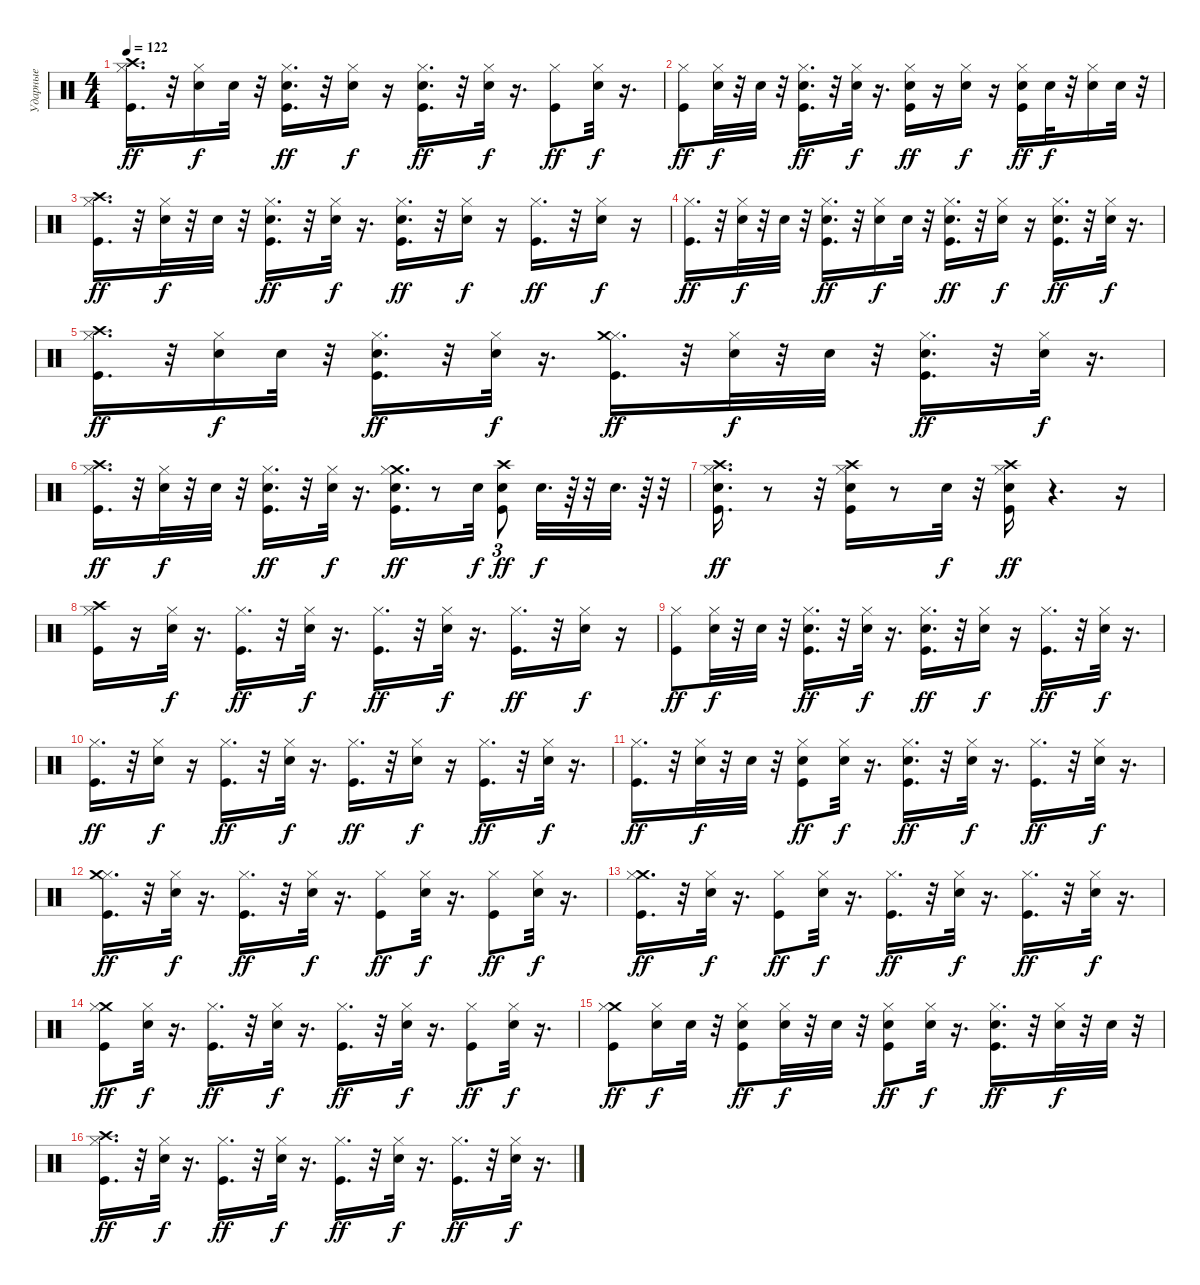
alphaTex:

\track ("Ударные" "Ударные") {instrument percussion}
\staff {score}
\articulation defaults
\ts (4 4)
\tempo 122
\clef neutral
\ks c
("Crash high (hit)" "Hi-Hat (closed)" "Kick (hit)").16{d dy ff} r.32 ("Electric Snare (hit)" "Hi-Hat (closed)").16{dy f} "Electric Snare (hit)".32 r.32 ("Electric Snare (hit)" "Hi-Hat (closed)" "Kick (hit)").16{d dy ff} r.32 ("Hi-Hat (closed)" "Electric Snare (hit)").16{dy f} r.16 ("Hi-Hat (closed)" "Kick (hit)" "Electric Snare (hit)").16{d dy ff} r.32 ("Hi-Hat (closed)" "Electric Snare (hit)").32{dy f} r.16{d} ("Hi-Hat (closed)" "Kick (hit)").8{dy ff} ("Hi-Hat (closed)" "Electric Snare (hit)").32{dy f} r.16{d} |
("Hi-Hat (closed)" "Kick (hit)").8{dy ff} ("Hi-Hat (closed)" "Electric Snare (hit)").32{dy f} r.32 "Electric Snare (hit)".32 r.32 ("Hi-Hat (closed)" "Kick (hit)" "Electric Snare (hit)").16{d dy ff} r.32 ("Hi-Hat (closed)" "Electric Snare (hit)").32{dy f} r.16{d} ("Hi-Hat (closed)" "Kick (hit)" "Electric Snare (hit)").16{dy ff} r.16 ("Hi-Hat (closed)" "Electric Snare (hit)").16{dy f} r.16 ("Electric Snare (hit)" "Hi-Hat (closed)" "Kick (hit)").16{dy ff} "Electric Snare (hit)".32{dy f} r.32 ("Electric Snare (hit)" "Hi-Hat (closed)").16 "Electric Snare (hit)".32 r.32 |
("Crash high (hit)" "Hi-Hat (closed)" "Kick (hit)").16{d dy ff} r.32 ("Hi-Hat (closed)" "Electric Snare (hit)").32{dy f} r.32 "Electric Snare (hit)".32 r.32 ("Electric Snare (hit)" "Hi-Hat (closed)" "Kick (hit)").16{d dy ff} r.32 ("Hi-Hat (closed)" "Electric Snare (hit)").32{dy f} r.16{d} ("Hi-Hat (closed)" "Kick (hit)" "Electric Snare (hit)").16{d dy ff} r.32 ("Hi-Hat (closed)" "Electric Snare (hit)").16{dy f} r.16 ("Hi-Hat (closed)" "Kick (hit)").16{d dy ff} r.32 ("Hi-Hat (closed)" "Electric Snare (hit)").16{dy f} r.16 |
("Hi-Hat (closed)" "Kick (hit)").16{d dy ff} r.32 ("Electric Snare (hit)" "Hi-Hat (closed)").32{dy f} r.32 "Electric Snare (hit)".32 r.32 ("Kick (hit)" "Hi-Hat (closed)" "Electric Snare (hit)").16{d dy ff} r.32 ("Hi-Hat (closed)" "Electric Snare (hit)").16{dy f} "Electric Snare (hit)".32 r.32 ("Electric Snare (hit)" "Hi-Hat (closed)" "Kick (hit)").16{d dy ff} r.32 ("Hi-Hat (closed)" "Electric Snare (hit)").16{dy f} r.16 ("Hi-Hat (closed)" "Kick (hit)" "Electric Snare (hit)").16{d dy ff} r.32 ("Hi-Hat (closed)" "Electric Snare (hit)").32{dy f} r.16{d} |
("Hi-Hat (closed)" "Kick (hit)" "Crash high (hit)").16{d dy ff} r.32 ("Electric Snare (hit)" "Hi-Hat (closed)").16{dy f} "Electric Snare (hit)".32 r.32 ("Electric Snare (hit)" "Kick (hit)" "Hi-Hat (closed)").16{d dy ff} r.32 ("Hi-Hat (closed)" "Electric Snare (hit)").32{dy f} r.16{d} ("Kick (hit)" "Hi-Hat (closed)" "Crash medium (hit)").16{d dy ff} r.32 ("Hi-Hat (closed)" "Electric Snare (hit)").32{dy f} r.32 "Electric Snare (hit)".32 r.32 ("Electric Snare (hit)" "Hi-Hat (closed)" "Kick (hit)").16{d dy ff} r.32 ("Hi-Hat (closed)" "Electric Snare (hit)").32{dy f} r.16{d} |
("Crash high (hit)" "Kick (hit)" "Hi-Hat (closed)").16{d dy ff} r.32 ("Electric Snare (hit)" "Hi-Hat (closed)").32{dy f} r.32 "Electric Snare (hit)".32 r.32 ("Electric Snare (hit)" "Kick (hit)" "Hi-Hat (closed)").16{d dy ff} r.32 ("Hi-Hat (closed)" "Electric Snare (hit)").32{dy f} r.16{d} ("Crash medium (hit)" "Kick (hit)" "Hi-Hat (closed)" "Electric Snare (hit)").16{d dy ff} r.8 "Electric Snare (hit)".32{dy f} ("Crash high (hit)" "Kick (hit)" "Electric Snare (hit)").8{tu (3 2) dy ff} "Electric Snare (hit)".32{d dy f} r.64 r.32 "Electric Snare (hit)".32{d} r.64 r.32 |
("Kick (hit)" "Hi-Hat (closed)" "Crash high (hit)" "Electric Snare (hit)").16{d dy ff} r.8 r.32 ("Electric Snare (hit)" "Crash high (hit)" "Hi-Hat (closed)" "Kick (hit)").16 r.8 "Electric Snare (hit)".32{dy f} r.32 ("Electric Snare (hit)" "Crash high (hit)" "Hi-Hat (closed)" "Kick (hit)").16{dy ff} r.4{d} r.16 |
("Kick (hit)" "Hi-Hat (closed)" "Crash high (hit)").16 r.16 ("Hi-Hat (closed)" "Electric Snare (hit)").32{dy f} r.16{d} ("Kick (hit)" "Hi-Hat (closed)").16{d dy ff} r.32 ("Electric Snare (hit)" "Hi-Hat (closed)").32{dy f} r.16{d} ("Kick (hit)" "Hi-Hat (closed)").16{d dy ff} r.32 ("Electric Snare (hit)" "Hi-Hat (closed)").32{dy f} r.16{d} ("Hi-Hat (closed)" "Kick (hit)").16{d dy ff} r.32 ("Electric Snare (hit)" "Hi-Hat (closed)").16{dy f} r.16 |
("Hi-Hat (closed)" "Kick (hit)").8{dy ff} ("Hi-Hat (closed)" "Electric Snare (hit)").32{dy f} r.32 "Electric Snare (hit)".32 r.32 ("Electric Snare (hit)" "Hi-Hat (closed)" "Kick (hit)").16{d dy ff} r.32 ("Hi-Hat (closed)" "Electric Snare (hit)").32{dy f} r.16{d} ("Electric Snare (hit)" "Hi-Hat (closed)" "Kick (hit)").16{d dy ff} r.32 ("Electric Snare (hit)" "Hi-Hat (closed)").16{dy f} r.16 ("Kick (hit)" "Hi-Hat (closed)").16{d dy ff} r.32 ("Electric Snare (hit)" "Hi-Hat (closed)").32{dy f} r.16{d} |
("Kick (hit)" "Hi-Hat (closed)").16{d dy ff} r.32 ("Electric Snare (hit)" "Hi-Hat (closed)").16{dy f} r.16 ("Kick (hit)" "Hi-Hat (closed)").16{d dy ff} r.32 ("Electric Snare (hit)" "Hi-Hat (closed)").32{dy f} r.16{d} ("Kick (hit)" "Hi-Hat (closed)").16{d dy ff} r.32 ("Electric Snare (hit)" "Hi-Hat (closed)").16{dy f} r.16 ("Kick (hit)" "Hi-Hat (closed)").16{d dy ff} r.32 ("Electric Snare (hit)" "Hi-Hat (closed)").32{dy f} r.16{d} |
("Hi-Hat (closed)" "Kick (hit)").16{d dy ff} r.32 ("Electric Snare (hit)" "Hi-Hat (closed)").32{dy f} r.32 "Electric Snare (hit)".32 r.32 ("Electric Snare (hit)" "Hi-Hat (closed)" "Kick (hit)").8{dy ff} ("Electric Snare (hit)" "Hi-Hat (closed)").32{dy f} r.16{d} ("Electric Snare (hit)" "Hi-Hat (closed)" "Kick (hit)").16{d dy ff} r.32 ("Electric Snare (hit)" "Hi-Hat (closed)").32{dy f} r.16{d} ("Hi-Hat (closed)" "Kick (hit)").16{d dy ff} r.32 ("Hi-Hat (closed)" "Electric Snare (hit)").32{dy f} r.16{d} |
("Hi-Hat (closed)" "Kick (hit)" "Crash medium (hit)").16{d dy ff} r.32 ("Hi-Hat (closed)" "Electric Snare (hit)").32{dy f} r.16{d} ("Hi-Hat (closed)" "Kick (hit)").16{d dy ff} r.32 ("Hi-Hat (closed)" "Electric Snare (hit)").32{dy f} r.16{d} ("Hi-Hat (closed)" "Kick (hit)").8{dy ff} ("Hi-Hat (closed)" "Electric Snare (hit)").32{dy f} r.16{d} ("Hi-Hat (closed)" "Kick (hit)").8{dy ff} ("Hi-Hat (closed)" "Electric Snare (hit)").32{dy f} r.16{d} |
("Crash medium (hit)" "Hi-Hat (closed)" "Kick (hit)").16{d dy ff} r.32 ("Hi-Hat (closed)" "Electric Snare (hit)").32{dy f} r.16{d} ("Hi-Hat (closed)" "Kick (hit)").8{dy ff} ("Electric Snare (hit)" "Hi-Hat (closed)").32{dy f} r.16{d} ("Hi-Hat (closed)" "Kick (hit)").16{d dy ff} r.32 ("Hi-Hat (closed)" "Electric Snare (hit)").32{dy f} r.16{d} ("Hi-Hat (closed)" "Kick (hit)").16{d dy ff} r.32 ("Hi-Hat (closed)" "Electric Snare (hit)").32{dy f} r.16{d} |
("Crash medium (hit)" "Hi-Hat (closed)" "Kick (hit)").8{dy ff} ("Hi-Hat (closed)" "Electric Snare (hit)").32{dy f} r.16{d} ("Hi-Hat (closed)" "Kick (hit)").16{d dy ff} r.32 ("Electric Snare (hit)" "Hi-Hat (closed)").32{dy f} r.16{d} ("Hi-Hat (closed)" "Kick (hit)").16{d dy ff} r.32 ("Electric Snare (hit)" "Hi-Hat (closed)").32{dy f} r.16{d} ("Hi-Hat (closed)" "Kick (hit)").8{dy ff} ("Hi-Hat (closed)" "Electric Snare (hit)").32{dy f} r.16{d} |
("Crash medium (hit)" "Hi-Hat (closed)" "Kick (hit)").8{dy ff} ("Hi-Hat (closed)" "Electric Snare (hit)").16{dy f} "Electric Snare (hit)".32 r.32 ("Hi-Hat (closed)" "Kick (hit)" "Electric Snare (hit)").8{dy ff} ("Electric Snare (hit)" "Hi-Hat (closed)").32{dy f} r.32 "Electric Snare (hit)".32 r.32 ("Electric Snare (hit)" "Hi-Hat (closed)" "Kick (hit)").8{dy ff} ("Electric Snare (hit)" "Hi-Hat (closed)").32{dy f} r.16{d} ("Electric Snare (hit)" "Kick (hit)" "Hi-Hat (closed)").16{d dy ff} r.32 ("Electric Snare (hit)" "Hi-Hat (closed)").32{dy f} r.32 "Electric Snare (hit)".32 r.32 |
("Crash high (hit)" "Kick (hit)" "Hi-Hat (closed)").16{d dy ff} r.32 ("Electric Snare (hit)" "Hi-Hat (closed)").32{dy f} r.16{d} ("Hi-Hat (closed)" "Kick (hit)").16{d dy ff} r.32 ("Hi-Hat (closed)" "Electric Snare (hit)").32{dy f} r.16{d} ("Hi-Hat (closed)" "Kick (hit)").16{d dy ff} r.32 ("Hi-Hat (closed)" "Electric Snare (hit)").32{dy f} r.16{d} ("Hi-Hat (closed)" "Kick (hit)").16{d dy ff} r.32 ("Hi-Hat (closed)" "Electric Snare (hit)").32{dy f} r.16{d}
